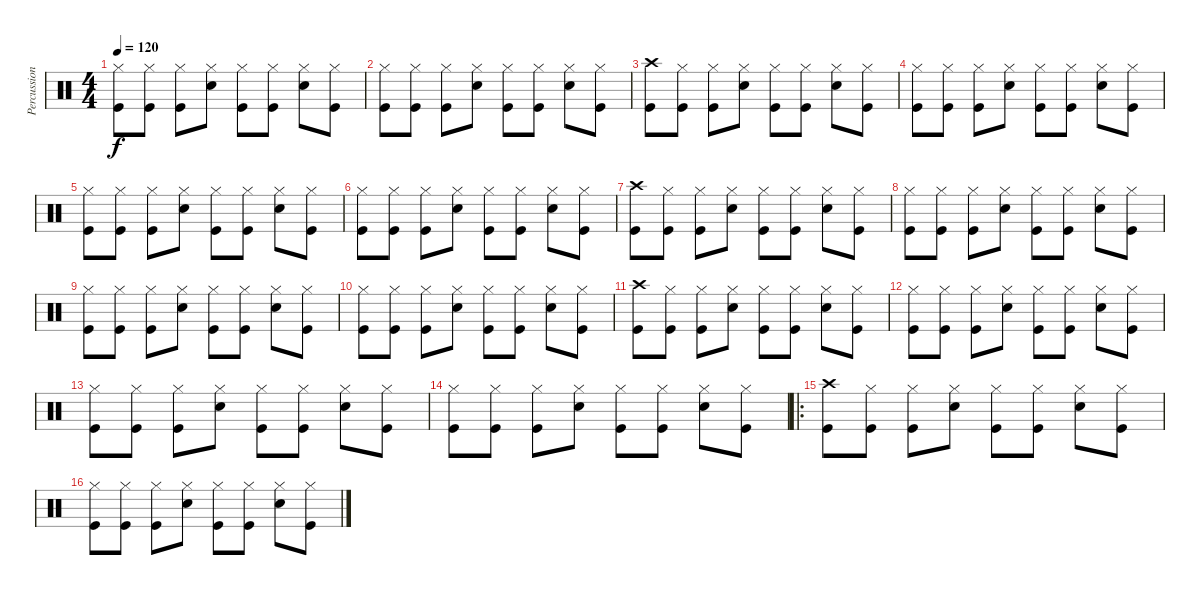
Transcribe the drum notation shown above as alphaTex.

\track ("Percussions" "Percussion") {instrument percussion}
\staff {score}
\articulation defaults
\ts (4 4)
\tempo 120
\clef neutral
\ks c
("Hi-Hat (closed)" "Kick (hit)").8{dy f} ("Hi-Hat (closed)" "Kick (hit)").8 ("Hi-Hat (closed)" "Kick (hit)").8 ("Hi-Hat (closed)" "Electric Snare (hit)").8 ("Hi-Hat (closed)" "Kick (hit)").8 ("Hi-Hat (closed)" "Kick (hit)").8 ("Hi-Hat (closed)" "Electric Snare (hit)").8 ("Hi-Hat (closed)" "Kick (hit)").8 |
("Hi-Hat (closed)" "Kick (hit)").8 ("Hi-Hat (closed)" "Kick (hit)").8 ("Hi-Hat (closed)" "Kick (hit)").8 ("Hi-Hat (closed)" "Electric Snare (hit)").8 ("Hi-Hat (closed)" "Kick (hit)").8 ("Hi-Hat (closed)" "Kick (hit)").8 ("Hi-Hat (closed)" "Electric Snare (hit)").8 ("Hi-Hat (closed)" "Kick (hit)").8 |
("Crash high (hit)" "Kick (hit)").8 ("Hi-Hat (closed)" "Kick (hit)").8 ("Hi-Hat (closed)" "Kick (hit)").8 ("Hi-Hat (closed)" "Electric Snare (hit)").8 ("Hi-Hat (closed)" "Kick (hit)").8 ("Hi-Hat (closed)" "Kick (hit)").8 ("Hi-Hat (closed)" "Electric Snare (hit)").8 ("Hi-Hat (closed)" "Kick (hit)").8 |
("Hi-Hat (closed)" "Kick (hit)").8 ("Hi-Hat (closed)" "Kick (hit)").8 ("Hi-Hat (closed)" "Kick (hit)").8 ("Hi-Hat (closed)" "Electric Snare (hit)").8 ("Hi-Hat (closed)" "Kick (hit)").8 ("Hi-Hat (closed)" "Kick (hit)").8 ("Hi-Hat (closed)" "Electric Snare (hit)").8 ("Hi-Hat (closed)" "Kick (hit)").8 |
("Hi-Hat (closed)" "Kick (hit)").8 ("Hi-Hat (closed)" "Kick (hit)").8 ("Hi-Hat (closed)" "Kick (hit)").8 ("Hi-Hat (closed)" "Electric Snare (hit)").8 ("Hi-Hat (closed)" "Kick (hit)").8 ("Hi-Hat (closed)" "Kick (hit)").8 ("Hi-Hat (closed)" "Electric Snare (hit)").8 ("Hi-Hat (closed)" "Kick (hit)").8 |
("Hi-Hat (closed)" "Kick (hit)").8 ("Hi-Hat (closed)" "Kick (hit)").8 ("Hi-Hat (closed)" "Kick (hit)").8 ("Hi-Hat (closed)" "Electric Snare (hit)").8 ("Hi-Hat (closed)" "Kick (hit)").8 ("Hi-Hat (closed)" "Kick (hit)").8 ("Hi-Hat (closed)" "Electric Snare (hit)").8 ("Hi-Hat (closed)" "Kick (hit)").8 |
("Crash high (hit)" "Kick (hit)").8 ("Hi-Hat (closed)" "Kick (hit)").8 ("Hi-Hat (closed)" "Kick (hit)").8 ("Hi-Hat (closed)" "Electric Snare (hit)").8 ("Hi-Hat (closed)" "Kick (hit)").8 ("Hi-Hat (closed)" "Kick (hit)").8 ("Hi-Hat (closed)" "Electric Snare (hit)").8 ("Hi-Hat (closed)" "Kick (hit)").8 |
("Hi-Hat (closed)" "Kick (hit)").8 ("Hi-Hat (closed)" "Kick (hit)").8 ("Hi-Hat (closed)" "Kick (hit)").8 ("Hi-Hat (closed)" "Electric Snare (hit)").8 ("Hi-Hat (closed)" "Kick (hit)").8 ("Hi-Hat (closed)" "Kick (hit)").8 ("Hi-Hat (closed)" "Electric Snare (hit)").8 ("Hi-Hat (closed)" "Kick (hit)").8 |
("Hi-Hat (closed)" "Kick (hit)").8 ("Hi-Hat (closed)" "Kick (hit)").8 ("Hi-Hat (closed)" "Kick (hit)").8 ("Hi-Hat (closed)" "Electric Snare (hit)").8 ("Hi-Hat (closed)" "Kick (hit)").8 ("Hi-Hat (closed)" "Kick (hit)").8 ("Hi-Hat (closed)" "Electric Snare (hit)").8 ("Hi-Hat (closed)" "Kick (hit)").8 |
("Hi-Hat (closed)" "Kick (hit)").8 ("Hi-Hat (closed)" "Kick (hit)").8 ("Hi-Hat (closed)" "Kick (hit)").8 ("Hi-Hat (closed)" "Electric Snare (hit)").8 ("Hi-Hat (closed)" "Kick (hit)").8 ("Hi-Hat (closed)" "Kick (hit)").8 ("Hi-Hat (closed)" "Electric Snare (hit)").8 ("Hi-Hat (closed)" "Kick (hit)").8 |
("Crash high (hit)" "Kick (hit)").8 ("Hi-Hat (closed)" "Kick (hit)").8 ("Hi-Hat (closed)" "Kick (hit)").8 ("Hi-Hat (closed)" "Electric Snare (hit)").8 ("Hi-Hat (closed)" "Kick (hit)").8 ("Hi-Hat (closed)" "Kick (hit)").8 ("Hi-Hat (closed)" "Electric Snare (hit)").8 ("Hi-Hat (closed)" "Kick (hit)").8 |
("Hi-Hat (closed)" "Kick (hit)").8 ("Hi-Hat (closed)" "Kick (hit)").8 ("Hi-Hat (closed)" "Kick (hit)").8 ("Hi-Hat (closed)" "Electric Snare (hit)").8 ("Hi-Hat (closed)" "Kick (hit)").8 ("Hi-Hat (closed)" "Kick (hit)").8 ("Hi-Hat (closed)" "Electric Snare (hit)").8 ("Hi-Hat (closed)" "Kick (hit)").8 |
("Hi-Hat (closed)" "Kick (hit)").8 ("Hi-Hat (closed)" "Kick (hit)").8 ("Hi-Hat (closed)" "Kick (hit)").8 ("Hi-Hat (closed)" "Electric Snare (hit)").8 ("Hi-Hat (closed)" "Kick (hit)").8 ("Hi-Hat (closed)" "Kick (hit)").8 ("Hi-Hat (closed)" "Electric Snare (hit)").8 ("Hi-Hat (closed)" "Kick (hit)").8 |
("Hi-Hat (closed)" "Kick (hit)").8 ("Hi-Hat (closed)" "Kick (hit)").8 ("Hi-Hat (closed)" "Kick (hit)").8 ("Hi-Hat (closed)" "Electric Snare (hit)").8 ("Hi-Hat (closed)" "Kick (hit)").8 ("Hi-Hat (closed)" "Kick (hit)").8 ("Hi-Hat (closed)" "Electric Snare (hit)").8 ("Hi-Hat (closed)" "Kick (hit)").8 |
\ro
("Crash high (hit)" "Kick (hit)").8 ("Hi-Hat (closed)" "Kick (hit)").8 ("Hi-Hat (closed)" "Kick (hit)").8 ("Hi-Hat (closed)" "Electric Snare (hit)").8 ("Hi-Hat (closed)" "Kick (hit)").8 ("Hi-Hat (closed)" "Kick (hit)").8 ("Hi-Hat (closed)" "Electric Snare (hit)").8 ("Hi-Hat (closed)" "Kick (hit)").8 |
("Hi-Hat (closed)" "Kick (hit)").8 ("Hi-Hat (closed)" "Kick (hit)").8 ("Hi-Hat (closed)" "Kick (hit)").8 ("Hi-Hat (closed)" "Electric Snare (hit)").8 ("Hi-Hat (closed)" "Kick (hit)").8 ("Hi-Hat (closed)" "Kick (hit)").8 ("Hi-Hat (closed)" "Electric Snare (hit)").8 ("Hi-Hat (closed)" "Kick (hit)").8
